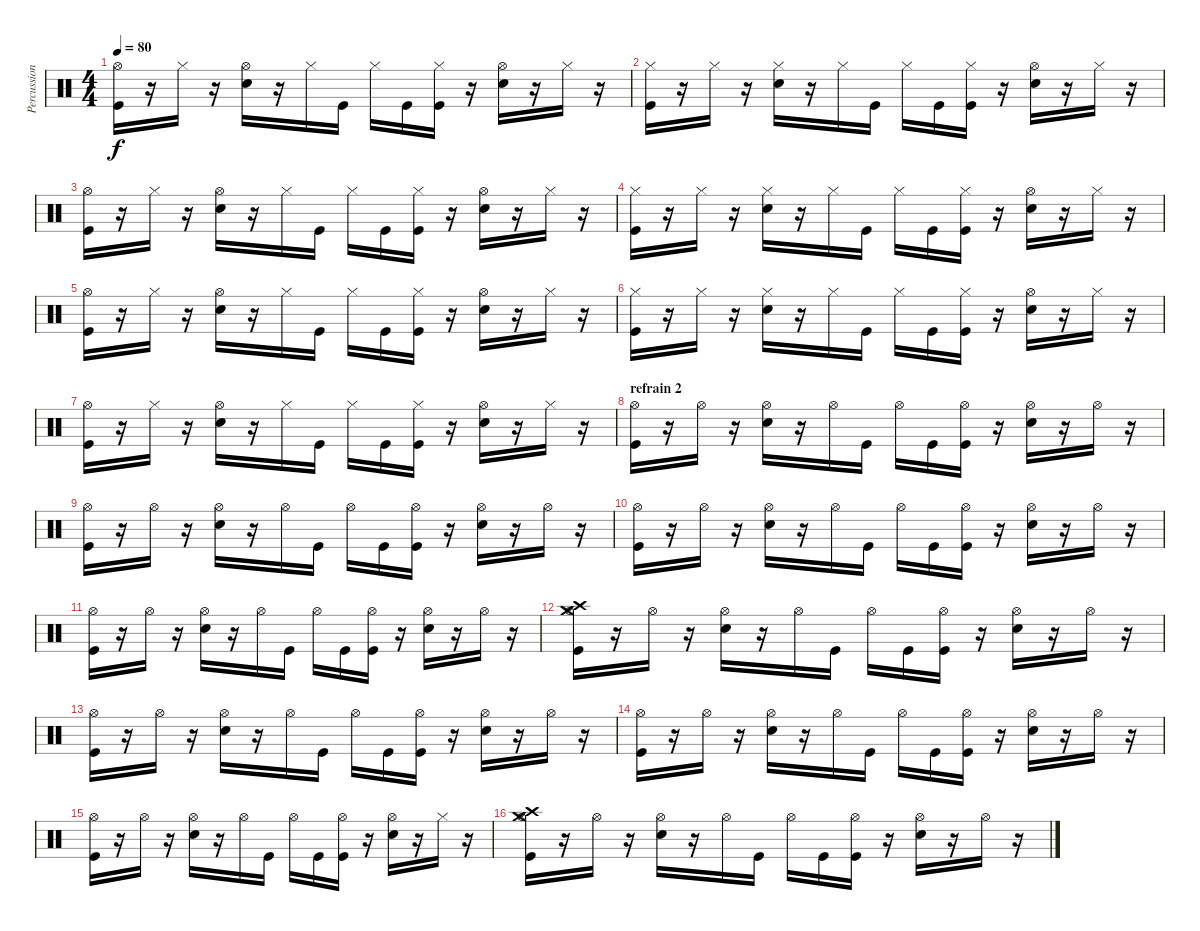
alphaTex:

\track ("Percussions" "Percussion") {instrument percussion}
\staff {score}
\articulation defaults
\ts (4 4)
\tempo 80
\clef neutral
\ks c
("Hi-Hat (open)" "Kick (hit)").16{dy f} r.16 "Hi-Hat (closed)".16 r.16 ("Hi-Hat (open)" "Electric Snare (hit)").16 r.16 "Hi-Hat (closed)".16 "Kick (hit)".16 "Hi-Hat (closed)".16 "Kick (hit)".16 ("Hi-Hat (closed)" "Kick (hit)").16 r.16 ("Hi-Hat (open)" "Electric Snare (hit)").16 r.16 "Hi-Hat (closed)".16 r.16 |
("Hi-Hat (closed)" "Kick (hit)").16 r.16 "Hi-Hat (closed)".16 r.16 ("Hi-Hat (closed)" "Electric Snare (hit)").16 r.16 "Hi-Hat (closed)".16 "Kick (hit)".16 "Hi-Hat (closed)".16 "Kick (hit)".16 ("Hi-Hat (closed)" "Kick (hit)").16 r.16 ("Hi-Hat (open)" "Electric Snare (hit)").16 r.16 "Hi-Hat (closed)".16 r.16 |
("Hi-Hat (open)" "Kick (hit)").16 r.16 "Hi-Hat (closed)".16 r.16 ("Hi-Hat (open)" "Electric Snare (hit)").16 r.16 "Hi-Hat (closed)".16 "Kick (hit)".16 "Hi-Hat (closed)".16 "Kick (hit)".16 ("Hi-Hat (closed)" "Kick (hit)").16 r.16 ("Hi-Hat (open)" "Electric Snare (hit)").16 r.16 "Hi-Hat (closed)".16 r.16 |
("Hi-Hat (closed)" "Kick (hit)").16 r.16 "Hi-Hat (closed)".16 r.16 ("Hi-Hat (closed)" "Electric Snare (hit)").16 r.16 "Hi-Hat (closed)".16 "Kick (hit)".16 "Hi-Hat (closed)".16 "Kick (hit)".16 ("Hi-Hat (closed)" "Kick (hit)").16 r.16 ("Hi-Hat (open)" "Electric Snare (hit)").16 r.16 "Hi-Hat (closed)".16 r.16 |
("Hi-Hat (open)" "Kick (hit)").16 r.16 "Hi-Hat (closed)".16 r.16 ("Hi-Hat (open)" "Electric Snare (hit)").16 r.16 "Hi-Hat (closed)".16 "Kick (hit)".16 "Hi-Hat (closed)".16 "Kick (hit)".16 ("Hi-Hat (closed)" "Kick (hit)").16 r.16 ("Hi-Hat (open)" "Electric Snare (hit)").16 r.16 "Hi-Hat (closed)".16 r.16 |
("Hi-Hat (closed)" "Kick (hit)").16 r.16 "Hi-Hat (closed)".16 r.16 ("Hi-Hat (closed)" "Electric Snare (hit)").16 r.16 "Hi-Hat (closed)".16 "Kick (hit)".16 "Hi-Hat (closed)".16 "Kick (hit)".16 ("Hi-Hat (closed)" "Kick (hit)").16 r.16 ("Hi-Hat (open)" "Electric Snare (hit)").16 r.16 "Hi-Hat (closed)".16 r.16 |
("Hi-Hat (open)" "Kick (hit)").16 r.16 "Hi-Hat (closed)".16 r.16 ("Hi-Hat (open)" "Electric Snare (hit)").16 r.16 "Hi-Hat (closed)".16 "Kick (hit)".16 "Hi-Hat (closed)".16 "Kick (hit)".16 ("Hi-Hat (closed)" "Kick (hit)").16 r.16 ("Hi-Hat (open)" "Electric Snare (hit)").16 r.16 "Hi-Hat (closed)".16 r.16 |
\section ("" "refrain 2")
("Hi-Hat (open)" "Kick (hit)").16 r.16 "Hi-Hat (open)".16 r.16 ("Hi-Hat (open)" "Electric Snare (hit)").16 r.16 "Hi-Hat (open)".16 "Kick (hit)".16 "Hi-Hat (open)".16 "Kick (hit)".16 ("Hi-Hat (open)" "Kick (hit)").16 r.16 ("Hi-Hat (open)" "Electric Snare (hit)").16 r.16 "Hi-Hat (open)".16 r.16 |
("Hi-Hat (open)" "Kick (hit)").16 r.16 "Hi-Hat (open)".16 r.16 ("Hi-Hat (open)" "Electric Snare (hit)").16 r.16 "Hi-Hat (open)".16 "Kick (hit)".16 "Hi-Hat (open)".16 "Kick (hit)".16 ("Hi-Hat (open)" "Kick (hit)").16 r.16 ("Hi-Hat (open)" "Electric Snare (hit)").16 r.16 "Hi-Hat (open)".16 r.16 |
("Hi-Hat (open)" "Kick (hit)").16 r.16 "Hi-Hat (open)".16 r.16 ("Hi-Hat (open)" "Electric Snare (hit)").16 r.16 "Hi-Hat (open)".16 "Kick (hit)".16 "Hi-Hat (open)".16 "Kick (hit)".16 ("Hi-Hat (open)" "Kick (hit)").16 r.16 ("Hi-Hat (open)" "Electric Snare (hit)").16 r.16 "Hi-Hat (open)".16 r.16 |
("Hi-Hat (open)" "Kick (hit)").16 r.16 "Hi-Hat (open)".16 r.16 ("Hi-Hat (open)" "Electric Snare (hit)").16 r.16 "Hi-Hat (open)".16 "Kick (hit)".16 "Hi-Hat (open)".16 "Kick (hit)".16 ("Hi-Hat (open)" "Kick (hit)").16 r.16 ("Hi-Hat (open)" "Electric Snare (hit)").16 r.16 "Hi-Hat (open)".16 r.16 |
("Hi-Hat (open)" "Crash high (hit)" "Crash medium (hit)" "Kick (hit)").16 r.16 "Hi-Hat (open)".16 r.16 ("Hi-Hat (open)" "Electric Snare (hit)").16 r.16 "Hi-Hat (open)".16 "Kick (hit)".16 "Hi-Hat (open)".16 "Kick (hit)".16 ("Hi-Hat (open)" "Kick (hit)").16 r.16 ("Hi-Hat (open)" "Electric Snare (hit)").16 r.16 "Hi-Hat (open)".16 r.16 |
("Hi-Hat (open)" "Kick (hit)").16 r.16 "Hi-Hat (open)".16 r.16 ("Hi-Hat (open)" "Electric Snare (hit)").16 r.16 "Hi-Hat (open)".16 "Kick (hit)".16 "Hi-Hat (open)".16 "Kick (hit)".16 ("Hi-Hat (open)" "Kick (hit)").16 r.16 ("Hi-Hat (open)" "Electric Snare (hit)").16 r.16 "Hi-Hat (open)".16 r.16 |
("Hi-Hat (open)" "Kick (hit)").16 r.16 "Hi-Hat (open)".16 r.16 ("Hi-Hat (open)" "Electric Snare (hit)").16 r.16 "Hi-Hat (open)".16 "Kick (hit)".16 "Hi-Hat (open)".16 "Kick (hit)".16 ("Hi-Hat (open)" "Kick (hit)").16 r.16 ("Hi-Hat (open)" "Electric Snare (hit)").16 r.16 "Hi-Hat (open)".16 r.16 |
("Hi-Hat (open)" "Kick (hit)").16 r.16 "Hi-Hat (open)".16 r.16 ("Hi-Hat (open)" "Electric Snare (hit)").16 r.16 "Hi-Hat (open)".16 "Kick (hit)".16 "Hi-Hat (open)".16 "Kick (hit)".16 ("Hi-Hat (open)" "Kick (hit)").16 r.16 ("Hi-Hat (open)" "Electric Snare (hit)").16 r.16 "Hi-Hat (closed)".16 r.16 |
("Hi-Hat (open)" "Crash high (hit)" "Crash medium (hit)" "Kick (hit)").16 r.16 "Hi-Hat (open)".16 r.16 ("Hi-Hat (open)" "Electric Snare (hit)").16 r.16 "Hi-Hat (open)".16 "Kick (hit)".16 "Hi-Hat (open)".16 "Kick (hit)".16 ("Hi-Hat (open)" "Kick (hit)").16 r.16 ("Hi-Hat (open)" "Electric Snare (hit)").16 r.16 "Hi-Hat (open)".16 r.16
